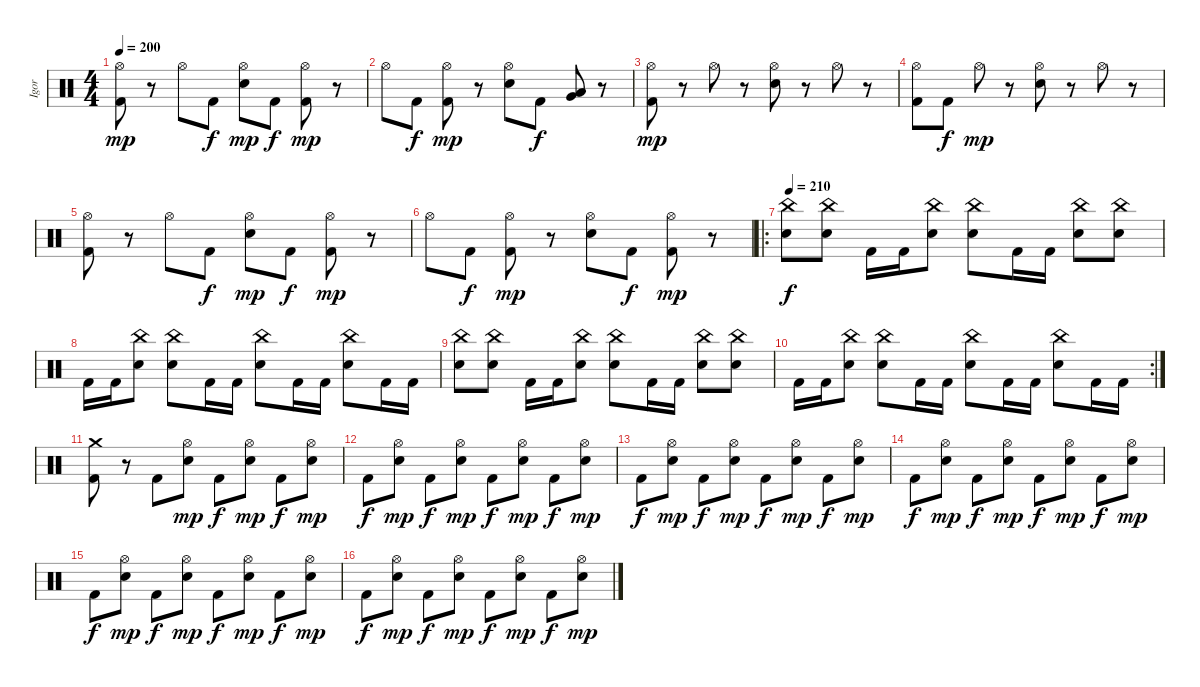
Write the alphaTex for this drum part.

\track ("Igor" "Igor") {instrument percussion}
\staff {score}
\articulation defaults
\ts (4 4)
\tempo 200
\clef neutral
\ks c
("Hi-Hat (open)" "Kick (hit) 2").8{dy mp} r.8 "Hi-Hat (open)".8 "Kick (hit) 2".8{dy f} ("Hi-Hat (open)" "Electric Snare (hit)").8{dy mp} "Kick (hit) 2".8{dy f} ("Hi-Hat (open)" "Kick (hit) 2").8{dy mp} r.8 |
"Hi-Hat (open)".8 "Kick (hit) 2".8{dy f} ("Hi-Hat (open)" "Kick (hit) 2").8{dy mp} r.8 ("Hi-Hat (open)" "Electric Snare (hit)").8 "Kick (hit) 2".8{dy f} ("Very Low Tom (hit)" "Low Floor Tom (hit)").8{bd 60} r.8 |
("Hi-Hat (open)" "Kick (hit) 2").8{dy mp} r.8 "Hi-Hat (open)".8 r.8 ("Hi-Hat (open)" "Electric Snare (hit)").8 r.8 "Hi-Hat (open)".8 r.8 |
("Hi-Hat (open)" "Kick (hit) 2").8 "Kick (hit) 2".8{dy f} "Hi-Hat (open)".8{dy mp} r.8 ("Hi-Hat (open)" "Electric Snare (hit)").8 r.8 "Hi-Hat (open)".8 r.8 |
("Hi-Hat (open)" "Kick (hit) 2").8 r.8 "Hi-Hat (open)".8 "Kick (hit) 2".8{dy f} ("Hi-Hat (open)" "Electric Snare (hit)").8{dy mp} "Kick (hit) 2".8{dy f} ("Hi-Hat (open)" "Kick (hit) 2").8{dy mp} r.8 |
"Hi-Hat (open)".8 "Kick (hit) 2".8{dy f} ("Hi-Hat (open)" "Kick (hit) 2").8{dy mp} r.8 ("Hi-Hat (open)" "Electric Snare (hit)").8 "Kick (hit) 2".8{dy f} ("Hi-Hat (open)" "Kick (hit) 2").8{dy mp} r.8 |
\ro
\tempo 210
("China (hit)" "Electric Snare (hit)").8{dy f} ("China (hit)" "Electric Snare (hit)").8 "Kick (hit) 2".16 "Kick (hit) 2".16 ("China (hit)" "Electric Snare (hit)").8 ("China (hit)" "Electric Snare (hit)").8 "Kick (hit) 2".16 "Kick (hit) 2".16 ("China (hit)" "Electric Snare (hit)").8 ("China (hit)" "Electric Snare (hit)").8 |
"Kick (hit) 2".16 "Kick (hit) 2".16 ("China (hit)" "Electric Snare (hit)").8 ("China (hit)" "Electric Snare (hit)").8 "Kick (hit) 2".16 "Kick (hit) 2".16 ("China (hit)" "Electric Snare (hit)").8 "Kick (hit) 2".16 "Kick (hit) 2".16 ("China (hit)" "Electric Snare (hit)").8 "Kick (hit) 2".16 "Kick (hit) 2".16 |
("China (hit)" "Electric Snare (hit)").8 ("China (hit)" "Electric Snare (hit)").8 "Kick (hit) 2".16 "Kick (hit) 2".16 ("China (hit)" "Electric Snare (hit)").8 ("China (hit)" "Electric Snare (hit)").8 "Kick (hit) 2".16 "Kick (hit) 2".16 ("China (hit)" "Electric Snare (hit)").8 ("China (hit)" "Electric Snare (hit)").8 |
\rc 2 "Kick (hit) 2".16 "Kick (hit) 2".16
("China (hit)" "Electric Snare (hit)").8 ("China (hit)" "Electric Snare (hit)").8 "Kick (hit) 2".16 "Kick (hit) 2".16 ("China (hit)" "Electric Snare (hit)").8 "Kick (hit) 2".16 "Kick (hit) 2".16 ("China (hit)" "Electric Snare (hit)").8 "Kick (hit) 2".16 "Kick (hit) 2".16 |
("Crash medium (hit)" "Kick (hit) 2").8 r.8 "Kick (hit) 2".8 ("Hi-Hat (open)" "Electric Snare (hit)").8{dy mp} "Kick (hit) 2".8{dy f} ("Hi-Hat (open)" "Electric Snare (hit)").8{dy mp} "Kick (hit) 2".8{dy f} ("Hi-Hat (open)" "Electric Snare (hit)").8{dy mp} |
"Kick (hit) 2".8{dy f} ("Hi-Hat (open)" "Electric Snare (hit)").8{dy mp} "Kick (hit) 2".8{dy f} ("Hi-Hat (open)" "Electric Snare (hit)").8{dy mp} "Kick (hit) 2".8{dy f} ("Hi-Hat (open)" "Electric Snare (hit)").8{dy mp} "Kick (hit) 2".8{dy f} ("Hi-Hat (open)" "Electric Snare (hit)").8{dy mp} |
"Kick (hit) 2".8{dy f} ("Hi-Hat (open)" "Electric Snare (hit)").8{dy mp} "Kick (hit) 2".8{dy f} ("Hi-Hat (open)" "Electric Snare (hit)").8{dy mp} "Kick (hit) 2".8{dy f} ("Hi-Hat (open)" "Electric Snare (hit)").8{dy mp} "Kick (hit) 2".8{dy f} ("Hi-Hat (open)" "Electric Snare (hit)").8{dy mp} |
"Kick (hit) 2".8{dy f} ("Hi-Hat (open)" "Electric Snare (hit)").8{dy mp} "Kick (hit) 2".8{dy f} ("Hi-Hat (open)" "Electric Snare (hit)").8{dy mp} "Kick (hit) 2".8{dy f} ("Hi-Hat (open)" "Electric Snare (hit)").8{dy mp} "Kick (hit) 2".8{dy f} ("Hi-Hat (open)" "Electric Snare (hit)").8{dy mp} |
"Kick (hit) 2".8{dy f} ("Hi-Hat (open)" "Electric Snare (hit)").8{dy mp} "Kick (hit) 2".8{dy f} ("Hi-Hat (open)" "Electric Snare (hit)").8{dy mp} "Kick (hit) 2".8{dy f} ("Hi-Hat (open)" "Electric Snare (hit)").8{dy mp} "Kick (hit) 2".8{dy f} ("Hi-Hat (open)" "Electric Snare (hit)").8{dy mp} |
"Kick (hit) 2".8{dy f} ("Hi-Hat (open)" "Electric Snare (hit)").8{dy mp} "Kick (hit) 2".8{dy f} ("Hi-Hat (open)" "Electric Snare (hit)").8{dy mp} "Kick (hit) 2".8{dy f} ("Hi-Hat (open)" "Electric Snare (hit)").8{dy mp} "Kick (hit) 2".8{dy f} ("Hi-Hat (open)" "Electric Snare (hit)").8{dy mp}
